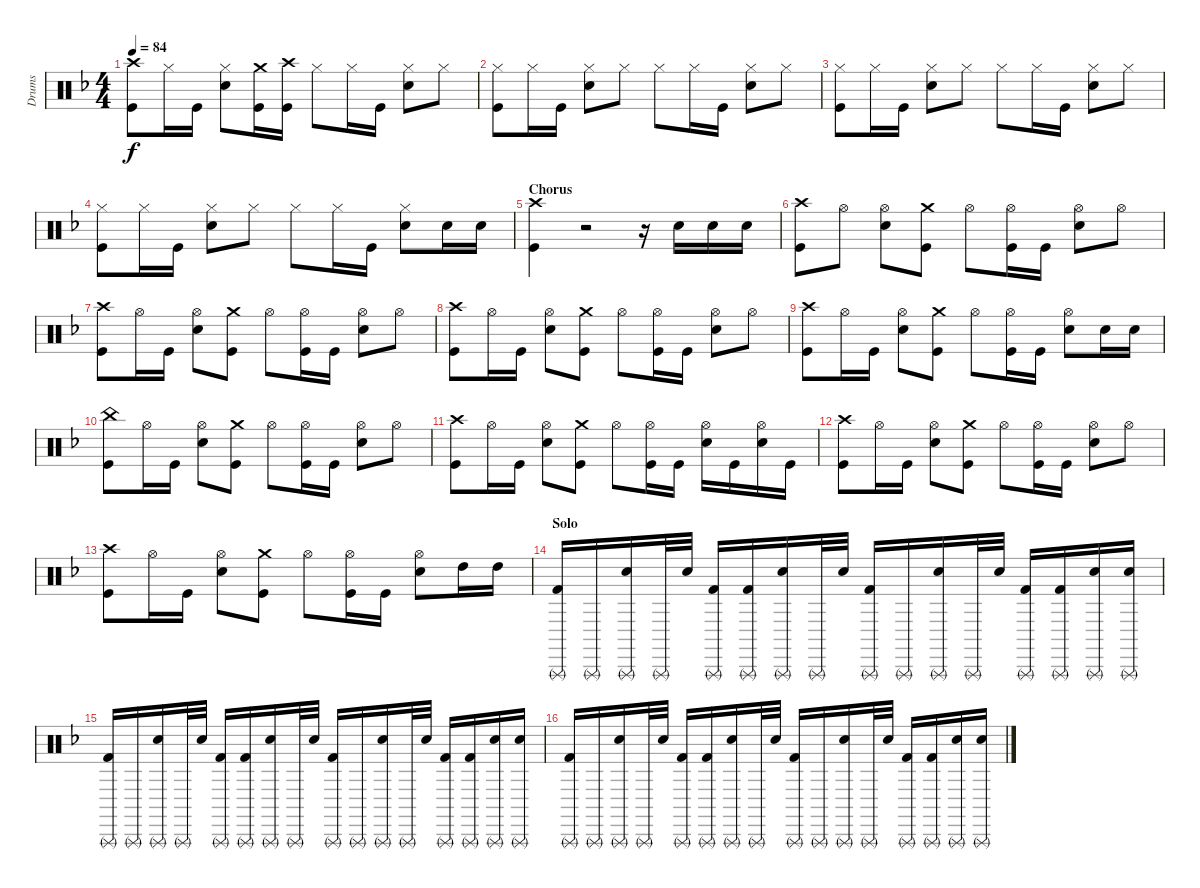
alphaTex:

\track ("Drums" "Drums") {instrument percussion}
\staff {score}
\articulation defaults
\ts (4 4)
\tempo 84
\clef neutral
\ks dminor
("Crash high (hit)" "Kick (hit)").8{dy f} "Hi-Hat (closed)".16 "Kick (hit)".16 ("Hi-Hat (closed)" "Snare (hit) 2").8 ("Crash medium (hit)" "Kick (hit)").16 ("Crash high (hit)" "Kick (hit)").16 "Hi-Hat (closed)".8 "Hi-Hat (closed)".16 "Kick (hit)".16 ("Hi-Hat (closed)" "Snare (hit) 2").8 "Hi-Hat (closed)".8 |
("Hi-Hat (closed)" "Kick (hit)").8 "Hi-Hat (closed)".16 "Kick (hit)".16 ("Hi-Hat (closed)" "Snare (hit) 2").8 "Hi-Hat (closed)".8 "Hi-Hat (closed)".8 "Hi-Hat (closed)".16 "Kick (hit)".16 ("Hi-Hat (closed)" "Snare (hit) 2").8 "Hi-Hat (closed)".8 |
("Hi-Hat (closed)" "Kick (hit)").8 "Hi-Hat (closed)".16 "Kick (hit)".16 ("Hi-Hat (closed)" "Snare (hit) 2").8 "Hi-Hat (closed)".8 "Hi-Hat (closed)".8 "Hi-Hat (closed)".16 "Kick (hit)".16 ("Hi-Hat (closed)" "Snare (hit) 2").8 "Hi-Hat (closed)".8 |
("Hi-Hat (closed)" "Kick (hit)").8 "Hi-Hat (closed)".16 "Kick (hit)".16 ("Hi-Hat (closed)" "Snare (hit) 2").8 "Hi-Hat (closed)".8 "Hi-Hat (closed)".8 "Hi-Hat (closed)".16 "Kick (hit)".16 ("Hi-Hat (closed)" "Snare (hit) 2").8 "Snare (hit) 2".16 "Snare (hit) 2".16 |
\section ("" "Chorus")
("Crash high (hit)" "Kick (hit)").4 r.2 r.16 "Snare (hit) 2".16 "Snare (hit) 2".16 "Snare (hit) 2".16 |
("Crash high (hit)" "Kick (hit)").8 "Hi-Hat (open)".8 ("Hi-Hat (open)" "Snare (hit) 2").8 ("Crash medium (hit)" "Kick (hit)").8 "Hi-Hat (open)".8 ("Hi-Hat (open)" "Kick (hit)").16 "Kick (hit)".16 ("Hi-Hat (open)" "Snare (hit) 2").8 "Hi-Hat (open)".8 |
("Crash high (hit)" "Kick (hit)").8 "Hi-Hat (open)".16 "Kick (hit)".16 ("Hi-Hat (open)" "Snare (hit) 2").8 ("Crash medium (hit)" "Kick (hit)").8 "Hi-Hat (open)".8 ("Hi-Hat (open)" "Kick (hit)").16 "Kick (hit)".16 ("Hi-Hat (open)" "Snare (hit) 2").8 "Hi-Hat (open)".8 |
("Crash high (hit)" "Kick (hit)").8 "Hi-Hat (open)".16 "Kick (hit)".16 ("Hi-Hat (open)" "Snare (hit) 2").8 ("Crash medium (hit)" "Kick (hit)").8 "Hi-Hat (open)".8 ("Hi-Hat (open)" "Kick (hit)").16 "Kick (hit)".16 ("Hi-Hat (open)" "Snare (hit) 2").8 "Hi-Hat (open)".8 |
("Crash high (hit)" "Kick (hit)").8 "Hi-Hat (open)".16 "Kick (hit)".16 ("Hi-Hat (open)" "Snare (hit) 2").8 ("Crash medium (hit)" "Kick (hit)").8 "Hi-Hat (open)".8 ("Hi-Hat (open)" "Kick (hit)").16 "Kick (hit)".16 ("Hi-Hat (open)" "Snare (hit) 2").8 "Snare (hit) 2".16 "Snare (hit) 2".16 |
("China (hit)" "Kick (hit)").8 "Hi-Hat (open)".16 "Kick (hit)".16 ("Hi-Hat (open)" "Snare (hit) 2").8 ("Crash medium (hit)" "Kick (hit)").8 "Hi-Hat (open)".8 ("Hi-Hat (open)" "Kick (hit)").16 "Kick (hit)".16 ("Hi-Hat (open)" "Snare (hit) 2").8 "Hi-Hat (open)".8 |
("Crash high (hit)" "Kick (hit)").8 "Hi-Hat (open)".16 "Kick (hit)".16 ("Hi-Hat (open)" "Snare (hit) 2").8 ("Crash medium (hit)" "Kick (hit)").8 "Hi-Hat (open)".8 ("Hi-Hat (open)" "Kick (hit)").16 "Kick (hit)".16 ("Hi-Hat (open)" "Snare (hit) 2").16 "Kick (hit)".16 ("Hi-Hat (open)" "Snare (hit) 2").16 "Kick (hit)".16 |
("Crash high (hit)" "Kick (hit)").8 "Hi-Hat (open)".16 "Kick (hit)".16 ("Hi-Hat (open)" "Snare (hit) 2").8 ("Crash medium (hit)" "Kick (hit)").8 "Hi-Hat (open)".8 ("Hi-Hat (open)" "Kick (hit)").16 "Kick (hit)".16 ("Hi-Hat (open)" "Snare (hit) 2").8 "Hi-Hat (open)".8 |
("Crash high (hit)" "Kick (hit)").8 "Hi-Hat (open)".16 "Kick (hit)".16 ("Hi-Hat (open)" "Snare (hit) 2").8 ("Crash medium (hit)" "Kick (hit)").8 "Hi-Hat (open)".8 ("Hi-Hat (open)" "Kick (hit)").16 "Kick (hit)".16 ("Hi-Hat (open)" "Snare (hit) 2").8 "High Tom (hit)".16 "High Tom (hit)".16 |
\section ("" "Solo")
("Triangle (rnute)" "Kick (hit) 2").16 "Triangle (rnute)".16 ("Triangle (rnute)" "Electric Snare (hit)").16 "Triangle (rnute)".32 "Electric Snare (hit)".32 ("Triangle (rnute)" "Kick (hit) 2").16 ("Triangle (rnute)" "Kick (hit) 2").16 ("Triangle (rnute)" "Electric Snare (hit)").16 "Triangle (rnute)".32 "Electric Snare (hit)".32 ("Triangle (rnute)" "Kick (hit) 2").16 "Triangle (rnute)".16 ("Triangle (rnute)" "Electric Snare (hit)").16 "Triangle (rnute)".32 "Electric Snare (hit)".32 ("Triangle (rnute)" "Kick (hit) 2").16 ("Triangle (rnute)" "Kick (hit) 2").16 ("Triangle (rnute)" "Electric Snare (hit)").16 ("Triangle (rnute)" "Electric Snare (hit)").16 |
("Triangle (rnute)" "Kick (hit) 2").16 "Triangle (rnute)".16 ("Triangle (rnute)" "Electric Snare (hit)").16 "Triangle (rnute)".32 "Electric Snare (hit)".32 ("Triangle (rnute)" "Kick (hit) 2").16 ("Triangle (rnute)" "Kick (hit) 2").16 ("Triangle (rnute)" "Electric Snare (hit)").16 "Triangle (rnute)".32 "Electric Snare (hit)".32 ("Triangle (rnute)" "Kick (hit) 2").16 "Triangle (rnute)".16 ("Triangle (rnute)" "Electric Snare (hit)").16 "Triangle (rnute)".32 "Electric Snare (hit)".32 ("Triangle (rnute)" "Kick (hit) 2").16 ("Triangle (rnute)" "Kick (hit) 2").16 ("Triangle (rnute)" "Electric Snare (hit)").16 ("Triangle (rnute)" "Electric Snare (hit)").16 |
("Triangle (rnute)" "Kick (hit) 2").16 "Triangle (rnute)".16 ("Triangle (rnute)" "Electric Snare (hit)").16 "Triangle (rnute)".32 "Electric Snare (hit)".32 ("Triangle (rnute)" "Kick (hit) 2").16 ("Triangle (rnute)" "Kick (hit) 2").16 ("Triangle (rnute)" "Electric Snare (hit)").16 "Triangle (rnute)".32 "Electric Snare (hit)".32 ("Triangle (rnute)" "Kick (hit) 2").16 "Triangle (rnute)".16 ("Triangle (rnute)" "Electric Snare (hit)").16 "Triangle (rnute)".32 "Electric Snare (hit)".32 ("Triangle (rnute)" "Kick (hit) 2").16 ("Triangle (rnute)" "Kick (hit) 2").16 ("Triangle (rnute)" "Electric Snare (hit)").16 ("Triangle (rnute)" "Electric Snare (hit)").16
